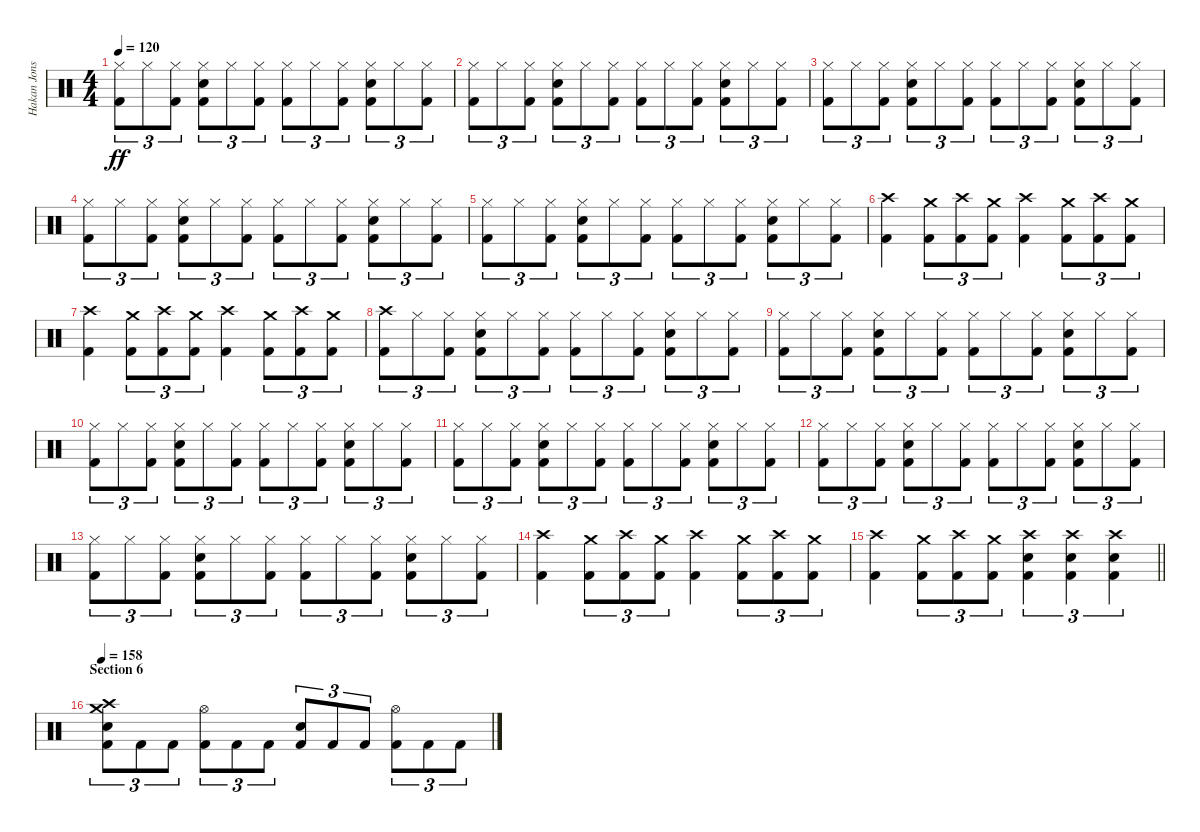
\track ("Hakan Jonsson" "Hakan Jons") {instrument percussion}
\staff {score}
\articulation defaults
\ts (4 4)
\tempo 120
\clef neutral
\ks c
("Hi-Hat (closed)" "Kick (hit) 2").8{tu (3 2) dy ff} "Hi-Hat (closed)".8{tu (3 2)} ("Hi-Hat (closed)" "Kick (hit) 2").8{tu (3 2)} ("Hi-Hat (closed)" "Electric Snare (hit)" "Kick (hit) 2").8{tu (3 2)} "Hi-Hat (closed)".8{tu (3 2)} ("Hi-Hat (closed)" "Kick (hit) 2").8{tu (3 2)} ("Hi-Hat (closed)" "Kick (hit) 2").8{tu (3 2)} "Hi-Hat (closed)".8{tu (3 2)} ("Hi-Hat (closed)" "Kick (hit) 2").8{tu (3 2)} ("Hi-Hat (closed)" "Electric Snare (hit)" "Kick (hit) 2").8{tu (3 2)} "Hi-Hat (closed)".8{tu (3 2)} ("Hi-Hat (closed)" "Kick (hit) 2").8{tu (3 2)} |
("Hi-Hat (closed)" "Kick (hit) 2").8{tu (3 2)} "Hi-Hat (closed)".8{tu (3 2)} ("Hi-Hat (closed)" "Kick (hit) 2").8{tu (3 2)} ("Hi-Hat (closed)" "Electric Snare (hit)" "Kick (hit) 2").8{tu (3 2)} "Hi-Hat (closed)".8{tu (3 2)} ("Hi-Hat (closed)" "Kick (hit) 2").8{tu (3 2)} ("Hi-Hat (closed)" "Kick (hit) 2").8{tu (3 2)} "Hi-Hat (closed)".8{tu (3 2)} ("Hi-Hat (closed)" "Kick (hit) 2").8{tu (3 2)} ("Hi-Hat (closed)" "Electric Snare (hit)" "Kick (hit) 2").8{tu (3 2)} "Hi-Hat (closed)".8{tu (3 2)} ("Hi-Hat (closed)" "Kick (hit) 2").8{tu (3 2)} |
("Hi-Hat (closed)" "Kick (hit) 2").8{tu (3 2)} "Hi-Hat (closed)".8{tu (3 2)} ("Hi-Hat (closed)" "Kick (hit) 2").8{tu (3 2)} ("Hi-Hat (closed)" "Electric Snare (hit)" "Kick (hit) 2").8{tu (3 2)} "Hi-Hat (closed)".8{tu (3 2)} ("Hi-Hat (closed)" "Kick (hit) 2").8{tu (3 2)} ("Hi-Hat (closed)" "Kick (hit) 2").8{tu (3 2)} "Hi-Hat (closed)".8{tu (3 2)} ("Hi-Hat (closed)" "Kick (hit) 2").8{tu (3 2)} ("Hi-Hat (closed)" "Electric Snare (hit)" "Kick (hit) 2").8{tu (3 2)} "Hi-Hat (closed)".8{tu (3 2)} ("Hi-Hat (closed)" "Kick (hit) 2").8{tu (3 2)} |
("Hi-Hat (closed)" "Kick (hit) 2").8{tu (3 2)} "Hi-Hat (closed)".8{tu (3 2)} ("Hi-Hat (closed)" "Kick (hit) 2").8{tu (3 2)} ("Hi-Hat (closed)" "Electric Snare (hit)" "Kick (hit) 2").8{tu (3 2)} "Hi-Hat (closed)".8{tu (3 2)} ("Hi-Hat (closed)" "Kick (hit) 2").8{tu (3 2)} ("Hi-Hat (closed)" "Kick (hit) 2").8{tu (3 2)} "Hi-Hat (closed)".8{tu (3 2)} ("Hi-Hat (closed)" "Kick (hit) 2").8{tu (3 2)} ("Hi-Hat (closed)" "Electric Snare (hit)" "Kick (hit) 2").8{tu (3 2)} "Hi-Hat (closed)".8{tu (3 2)} ("Hi-Hat (closed)" "Kick (hit) 2").8{tu (3 2)} |
("Hi-Hat (closed)" "Kick (hit) 2").8{tu (3 2)} "Hi-Hat (closed)".8{tu (3 2)} ("Hi-Hat (closed)" "Kick (hit) 2").8{tu (3 2)} ("Hi-Hat (closed)" "Electric Snare (hit)" "Kick (hit) 2").8{tu (3 2)} "Hi-Hat (closed)".8{tu (3 2)} ("Hi-Hat (closed)" "Kick (hit) 2").8{tu (3 2)} ("Hi-Hat (closed)" "Kick (hit) 2").8{tu (3 2)} "Hi-Hat (closed)".8{tu (3 2)} ("Hi-Hat (closed)" "Kick (hit) 2").8{tu (3 2)} ("Hi-Hat (closed)" "Electric Snare (hit)" "Kick (hit) 2").8{tu (3 2)} "Hi-Hat (closed)".8{tu (3 2)} ("Hi-Hat (closed)" "Kick (hit) 2").8{tu (3 2)} |
("Crash high (hit)" "Kick (hit) 2").4 ("Crash medium (hit)" "Kick (hit) 2").8{tu (3 2)} ("Crash high (hit)" "Kick (hit) 2").8{tu (3 2)} ("Crash medium (hit)" "Kick (hit) 2").8{tu (3 2)} ("Crash high (hit)" "Kick (hit) 2").4 ("Crash medium (hit)" "Kick (hit) 2").8{tu (3 2)} ("Crash high (hit)" "Kick (hit) 2").8{tu (3 2)} ("Crash medium (hit)" "Kick (hit) 2").8{tu (3 2)} |
("Crash high (hit)" "Kick (hit) 2").4 ("Crash medium (hit)" "Kick (hit) 2").8{tu (3 2)} ("Crash high (hit)" "Kick (hit) 2").8{tu (3 2)} ("Crash medium (hit)" "Kick (hit) 2").8{tu (3 2)} ("Crash high (hit)" "Kick (hit) 2").4 ("Crash medium (hit)" "Kick (hit) 2").8{tu (3 2)} ("Crash high (hit)" "Kick (hit) 2").8{tu (3 2)} ("Crash medium (hit)" "Kick (hit) 2").8{tu (3 2)} |
("Crash high (hit)" "Kick (hit) 2").8{tu (3 2)} "Hi-Hat (closed)".8{tu (3 2)} ("Hi-Hat (closed)" "Kick (hit) 2").8{tu (3 2)} ("Hi-Hat (closed)" "Electric Snare (hit)" "Kick (hit) 2").8{tu (3 2)} "Hi-Hat (closed)".8{tu (3 2)} ("Hi-Hat (closed)" "Kick (hit) 2").8{tu (3 2)} ("Hi-Hat (closed)" "Kick (hit) 2").8{tu (3 2)} "Hi-Hat (closed)".8{tu (3 2)} ("Hi-Hat (closed)" "Kick (hit) 2").8{tu (3 2)} ("Hi-Hat (closed)" "Electric Snare (hit)" "Kick (hit) 2").8{tu (3 2)} "Hi-Hat (closed)".8{tu (3 2)} ("Hi-Hat (closed)" "Kick (hit) 2").8{tu (3 2)} |
("Hi-Hat (closed)" "Kick (hit) 2").8{tu (3 2)} "Hi-Hat (closed)".8{tu (3 2)} ("Hi-Hat (closed)" "Kick (hit) 2").8{tu (3 2)} ("Hi-Hat (closed)" "Electric Snare (hit)" "Kick (hit) 2").8{tu (3 2)} "Hi-Hat (closed)".8{tu (3 2)} ("Hi-Hat (closed)" "Kick (hit) 2").8{tu (3 2)} ("Hi-Hat (closed)" "Kick (hit) 2").8{tu (3 2)} "Hi-Hat (closed)".8{tu (3 2)} ("Hi-Hat (closed)" "Kick (hit) 2").8{tu (3 2)} ("Hi-Hat (closed)" "Electric Snare (hit)" "Kick (hit) 2").8{tu (3 2)} "Hi-Hat (closed)".8{tu (3 2)} ("Hi-Hat (closed)" "Kick (hit) 2").8{tu (3 2)} |
("Hi-Hat (closed)" "Kick (hit) 2").8{tu (3 2)} "Hi-Hat (closed)".8{tu (3 2)} ("Hi-Hat (closed)" "Kick (hit) 2").8{tu (3 2)} ("Hi-Hat (closed)" "Electric Snare (hit)" "Kick (hit) 2").8{tu (3 2)} "Hi-Hat (closed)".8{tu (3 2)} ("Hi-Hat (closed)" "Kick (hit) 2").8{tu (3 2)} ("Hi-Hat (closed)" "Kick (hit) 2").8{tu (3 2)} "Hi-Hat (closed)".8{tu (3 2)} ("Hi-Hat (closed)" "Kick (hit) 2").8{tu (3 2)} ("Hi-Hat (closed)" "Electric Snare (hit)" "Kick (hit) 2").8{tu (3 2)} "Hi-Hat (closed)".8{tu (3 2)} ("Hi-Hat (closed)" "Kick (hit) 2").8{tu (3 2)} |
("Hi-Hat (closed)" "Kick (hit) 2").8{tu (3 2)} "Hi-Hat (closed)".8{tu (3 2)} ("Hi-Hat (closed)" "Kick (hit) 2").8{tu (3 2)} ("Hi-Hat (closed)" "Electric Snare (hit)" "Kick (hit) 2").8{tu (3 2)} "Hi-Hat (closed)".8{tu (3 2)} ("Hi-Hat (closed)" "Kick (hit) 2").8{tu (3 2)} ("Hi-Hat (closed)" "Kick (hit) 2").8{tu (3 2)} "Hi-Hat (closed)".8{tu (3 2)} ("Hi-Hat (closed)" "Kick (hit) 2").8{tu (3 2)} ("Hi-Hat (closed)" "Electric Snare (hit)" "Kick (hit) 2").8{tu (3 2)} "Hi-Hat (closed)".8{tu (3 2)} ("Hi-Hat (closed)" "Kick (hit) 2").8{tu (3 2)} |
("Hi-Hat (closed)" "Kick (hit) 2").8{tu (3 2)} "Hi-Hat (closed)".8{tu (3 2)} ("Hi-Hat (closed)" "Kick (hit) 2").8{tu (3 2)} ("Hi-Hat (closed)" "Electric Snare (hit)" "Kick (hit) 2").8{tu (3 2)} "Hi-Hat (closed)".8{tu (3 2)} ("Hi-Hat (closed)" "Kick (hit) 2").8{tu (3 2)} ("Hi-Hat (closed)" "Kick (hit) 2").8{tu (3 2)} "Hi-Hat (closed)".8{tu (3 2)} ("Hi-Hat (closed)" "Kick (hit) 2").8{tu (3 2)} ("Hi-Hat (closed)" "Electric Snare (hit)" "Kick (hit) 2").8{tu (3 2)} "Hi-Hat (closed)".8{tu (3 2)} ("Hi-Hat (closed)" "Kick (hit) 2").8{tu (3 2)} |
("Hi-Hat (closed)" "Kick (hit) 2").8{tu (3 2)} "Hi-Hat (closed)".8{tu (3 2)} ("Hi-Hat (closed)" "Kick (hit) 2").8{tu (3 2)} ("Hi-Hat (closed)" "Electric Snare (hit)" "Kick (hit) 2").8{tu (3 2)} "Hi-Hat (closed)".8{tu (3 2)} ("Hi-Hat (closed)" "Kick (hit) 2").8{tu (3 2)} ("Hi-Hat (closed)" "Kick (hit) 2").8{tu (3 2)} "Hi-Hat (closed)".8{tu (3 2)} ("Hi-Hat (closed)" "Kick (hit) 2").8{tu (3 2)} ("Hi-Hat (closed)" "Electric Snare (hit)" "Kick (hit) 2").8{tu (3 2)} "Hi-Hat (closed)".8{tu (3 2)} ("Hi-Hat (closed)" "Kick (hit) 2").8{tu (3 2)} |
("Crash high (hit)" "Kick (hit) 2").4 ("Crash medium (hit)" "Kick (hit) 2").8{tu (3 2)} ("Crash high (hit)" "Kick (hit) 2").8{tu (3 2)} ("Crash medium (hit)" "Kick (hit) 2").8{tu (3 2)} ("Crash high (hit)" "Kick (hit) 2").4 ("Crash medium (hit)" "Kick (hit) 2").8{tu (3 2)} ("Crash high (hit)" "Kick (hit) 2").8{tu (3 2)} ("Crash medium (hit)" "Kick (hit) 2").8{tu (3 2)} |
\barLineRight lightlight
("Crash high (hit)" "Kick (hit) 2").4 ("Crash medium (hit)" "Kick (hit) 2").8{tu (3 2)} ("Crash high (hit)" "Kick (hit) 2").8{tu (3 2)} ("Crash medium (hit)" "Kick (hit) 2").8{tu (3 2)} ("Crash high (hit)" "Electric Snare (hit)" "Kick (hit) 2").4{tu (3 2)} ("Crash high (hit)" "Electric Snare (hit)" "Kick (hit) 2").4{tu (3 2)} ("Crash high (hit)" "Electric Snare (hit)" "Kick (hit) 2").4{tu (3 2)} |
\section ("" "Section 6")
\tempo 158
("Crash medium (hit)" "Crash high (hit)" "Electric Snare (hit)" "Kick (hit) 2").8{tu (3 2)} "Kick (hit) 2".8{tu (3 2)} "Kick (hit) 2".8{tu (3 2)} ("Hi-Hat (open)" "Kick (hit) 2").8{tu (3 2)} "Kick (hit) 2".8{tu (3 2)} "Kick (hit) 2".8{tu (3 2)} ("Electric Snare (hit)" "Kick (hit) 2").8{tu (3 2)} "Kick (hit) 2".8{tu (3 2)} "Kick (hit) 2".8{tu (3 2)} ("Hi-Hat (open)" "Kick (hit) 2").8{tu (3 2)} "Kick (hit) 2".8{tu (3 2)} "Kick (hit) 2".8{tu (3 2)}
